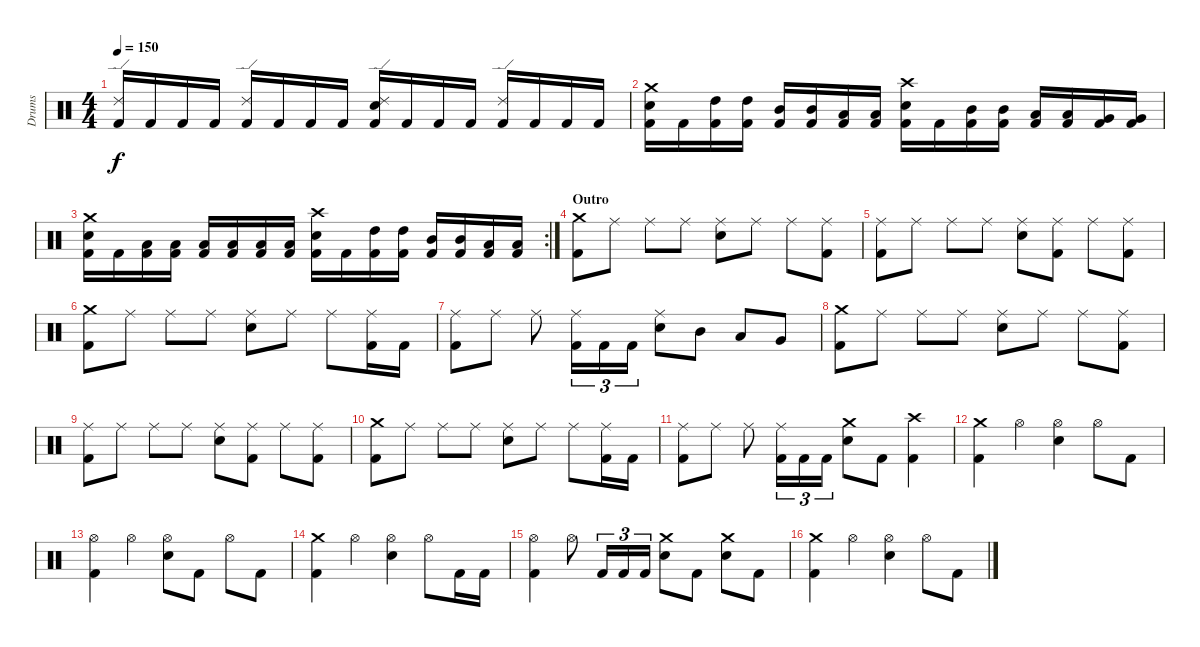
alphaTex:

\track ("Drums" "Drums") {instrument percussion}
\staff {score}
\articulation defaults
\ts (4 4)
\tempo 150
\clef neutral
\ks c
("Kick (hit) 2" "Ride (edge) 2").16{dy f} "Kick (hit) 2".16 "Kick (hit) 2".16 "Kick (hit) 2".16 ("Kick (hit) 2" "Ride (edge) 2").16 "Kick (hit) 2".16 "Kick (hit) 2".16 "Kick (hit) 2".16 ("Kick (hit) 2" "Electric Snare (hit)" "Ride (edge) 2").16 "Kick (hit) 2".16 "Kick (hit) 2".16 "Kick (hit) 2".16 ("Kick (hit) 2" "Ride (edge) 2").16 "Kick (hit) 2".16 "Kick (hit) 2".16 "Kick (hit) 2".16 |
("Kick (hit) 2" "Electric Snare (hit)" "Crash medium (hit)").16 "Kick (hit) 2".16 ("Kick (hit) 2" "High Tom (hit)").16 ("Kick (hit) 2" "High Tom (hit)").16 ("Kick (hit) 2" "Mid Tom (hit)").16 ("Kick (hit) 2" "Mid Tom (hit)").16 ("Kick (hit) 2" "Low Tom (hit)").16 ("Kick (hit) 2" "Low Tom (hit)").16 ("Kick (hit) 2" "Electric Snare (hit)" "Crash high (hit)").16 "Kick (hit) 2".16 ("Kick (hit) 2" "Mid Tom (hit)").16 ("Kick (hit) 2" "Mid Tom (hit)").16 ("Kick (hit) 2" "Low Tom (hit)").16 ("Kick (hit) 2" "Low Tom (hit)").16 ("Kick (hit) 2" "Very Low Tom (hit)").16 ("Kick (hit) 2" "Very Low Tom (hit)").16 |
\rc 2
("Kick (hit) 2" "Electric Snare (hit)" "Crash medium (hit)").16 "Kick (hit) 2".16 ("Kick (hit) 2" "Low Tom (hit)").16 ("Kick (hit) 2" "Low Tom (hit)").16 ("Kick (hit) 2" "Low Tom (hit)").16 ("Kick (hit) 2" "Low Tom (hit)").16 ("Kick (hit) 2" "Low Tom (hit)").16 ("Kick (hit) 2" "Low Tom (hit)").16 ("Kick (hit) 2" "Electric Snare (hit)" "Crash high (hit)").16 "Kick (hit) 2".16 ("Kick (hit) 2" "High Tom (hit)").16 ("Kick (hit) 2" "High Tom (hit)").16 ("Kick (hit) 2" "Mid Tom (hit)").16 ("Kick (hit) 2" "Mid Tom (hit)").16 ("Kick (hit) 2" "Low Tom (hit)").16 ("Kick (hit) 2" "Low Tom (hit)").16 |
\section ("" "Outro")
("Kick (hit) 2" "Crash medium (hit)").8 "Ride (middle)".8 "Ride (middle)".8 "Ride (middle)".8 ("Electric Snare (hit)" "Ride (middle)").8 "Ride (middle)".8 "Ride (middle)".8 ("Kick (hit) 2" "Ride (middle)").8 |
("Kick (hit) 2" "Ride (middle)").8 "Ride (middle)".8 "Ride (middle)".8 "Ride (middle)".8 ("Electric Snare (hit)" "Ride (middle)").8 ("Kick (hit) 2" "Ride (middle)").8 "Ride (middle)".8 ("Kick (hit) 2" "Ride (middle)").8 |
("Kick (hit) 2" "Crash medium (hit)").8 "Ride (middle)".8 "Ride (middle)".8 "Ride (middle)".8 ("Electric Snare (hit)" "Ride (middle)").8 "Ride (middle)".8 "Ride (middle)".8 ("Kick (hit) 2" "Ride (middle)").16 "Kick (hit) 2".16 |
("Kick (hit) 2" "Ride (middle)").8 "Ride (middle)".8 "Ride (middle)".8 ("Kick (hit) 2" "Ride (middle)").16{tu (3 2)} "Kick (hit) 2".16{tu (3 2)} "Kick (hit) 2".16{tu (3 2)} ("Electric Snare (hit)" "Ride (middle)").8 "Mid Tom (hit)".8 "Low Tom (hit)".8 "Very Low Tom (hit)".8 |
("Kick (hit) 2" "Crash medium (hit)").8 "Ride (middle)".8 "Ride (middle)".8 "Ride (middle)".8 ("Electric Snare (hit)" "Ride (middle)").8 "Ride (middle)".8 "Ride (middle)".8 ("Kick (hit) 2" "Ride (middle)").8 |
("Kick (hit) 2" "Ride (middle)").8 "Ride (middle)".8 "Ride (middle)".8 "Ride (middle)".8 ("Electric Snare (hit)" "Ride (middle)").8 ("Kick (hit) 2" "Ride (middle)").8 "Ride (middle)".8 ("Kick (hit) 2" "Ride (middle)").8 |
("Kick (hit) 2" "Crash medium (hit)").8 "Ride (middle)".8 "Ride (middle)".8 "Ride (middle)".8 ("Electric Snare (hit)" "Ride (middle)").8 "Ride (middle)".8 "Ride (middle)".8 ("Kick (hit) 2" "Ride (middle)").16 "Kick (hit) 2".16 |
("Kick (hit) 2" "Ride (middle)").8 "Ride (middle)".8 "Ride (middle)".8 ("Kick (hit) 2" "Ride (middle)").16{tu (3 2)} "Kick (hit) 2".16{tu (3 2)} "Kick (hit) 2".16{tu (3 2)} ("Electric Snare (hit)" "Crash medium (hit)").8 "Kick (hit) 2".8 ("Kick (hit) 2" "Crash high (hit)").4 |
("Kick (hit) 2" "Crash medium (hit)").4 "Hi-Hat (open)".4 ("Electric Snare (hit)" "Hi-Hat (open)").4 "Hi-Hat (open)".8 "Kick (hit) 2".8 |
("Kick (hit) 2" "Hi-Hat (open)").4 "Hi-Hat (open)".4 ("Electric Snare (hit)" "Hi-Hat (open)").8 "Kick (hit) 2".8 "Hi-Hat (open)".8 "Kick (hit) 2".8 |
("Kick (hit) 2" "Crash medium (hit)").4 "Hi-Hat (open)".4 ("Electric Snare (hit)" "Hi-Hat (open)").4 "Hi-Hat (open)".8 "Kick (hit) 2".16 "Kick (hit) 2".16 |
("Kick (hit) 2" "Hi-Hat (open)").4 "Hi-Hat (open)".8 "Kick (hit) 2".16{tu (3 2)} "Kick (hit) 2".16{tu (3 2)} "Kick (hit) 2".16{tu (3 2)} ("Electric Snare (hit)" "Crash medium (hit)").8 "Kick (hit) 2".8 ("Electric Snare (hit)" "Crash medium (hit)").8 "Kick (hit) 2".8 |
("Kick (hit) 2" "Crash medium (hit)").4 "Hi-Hat (open)".4 ("Electric Snare (hit)" "Hi-Hat (open)").4 "Hi-Hat (open)".8 "Kick (hit) 2".8
